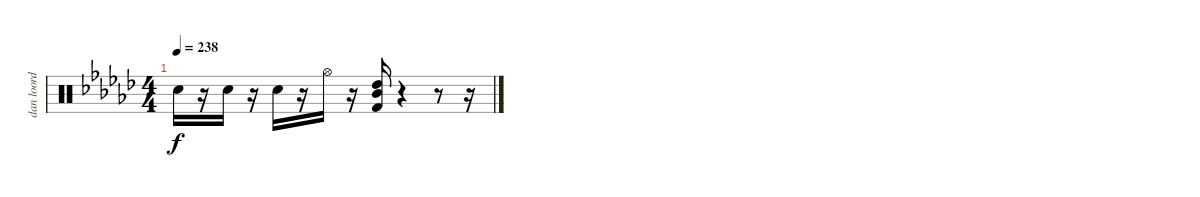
\track ("dan loord foord" "dan loord ") {instrument percussion}
\staff {score}
\articulation defaults
\ts (4 4)
\tempo 238
\clef neutral
\ks gb "Snare (hit) 2".16{dy f}
r.16 "Snare (hit) 2".16 r.16 "Snare (hit) 2".16 r.16 "Hi-Hat (open)".16 r.16 ("Kick (hit) 2" "Mid Tom (hit)" "High Tom (hit)").16 r.4 r.8 r.16
